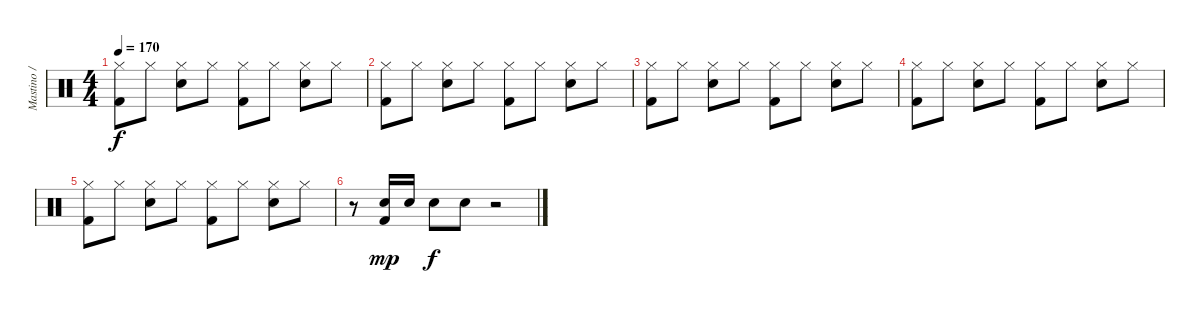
\track ("Mastino / Drums" "Mastino / ") {instrument percussion}
\staff {score}
\articulation defaults
\ts (4 4)
\tempo 170
\clef neutral
\ks c
("Hi-Hat (closed)" "Kick (hit) 2").8{dy f} "Hi-Hat (closed)".8 ("Hi-Hat (closed)" "Electric Snare (hit)").8 "Hi-Hat (closed)".8 ("Hi-Hat (closed)" "Kick (hit) 2").8 "Hi-Hat (closed)".8 ("Hi-Hat (closed)" "Electric Snare (hit)").8 "Hi-Hat (closed)".8 |
("Hi-Hat (closed)" "Kick (hit) 2").8 "Hi-Hat (closed)".8 ("Hi-Hat (closed)" "Electric Snare (hit)").8 "Hi-Hat (closed)".8 ("Hi-Hat (closed)" "Kick (hit) 2").8 "Hi-Hat (closed)".8 ("Hi-Hat (closed)" "Electric Snare (hit)").8 "Hi-Hat (closed)".8 |
("Hi-Hat (closed)" "Kick (hit) 2").8 "Hi-Hat (closed)".8 ("Hi-Hat (closed)" "Electric Snare (hit)").8 "Hi-Hat (closed)".8 ("Hi-Hat (closed)" "Kick (hit) 2").8 "Hi-Hat (closed)".8 ("Hi-Hat (closed)" "Electric Snare (hit)").8 "Hi-Hat (closed)".8 |
("Hi-Hat (closed)" "Kick (hit) 2").8 "Hi-Hat (closed)".8 ("Hi-Hat (closed)" "Electric Snare (hit)").8 "Hi-Hat (closed)".8 ("Hi-Hat (closed)" "Kick (hit) 2").8 "Hi-Hat (closed)".8 ("Hi-Hat (closed)" "Electric Snare (hit)").8 "Hi-Hat (closed)".8 |
("Hi-Hat (closed)" "Kick (hit) 2").8 "Hi-Hat (closed)".8 ("Hi-Hat (closed)" "Electric Snare (hit)").8 "Hi-Hat (closed)".8 ("Hi-Hat (closed)" "Kick (hit) 2").8 "Hi-Hat (closed)".8 ("Hi-Hat (closed)" "Electric Snare (hit)").8 "Hi-Hat (closed)".8 |
r.8 ("Electric Snare (hit)" "Kick (hit) 2").16{dy mp} "Electric Snare (hit)".16 "Electric Snare (hit)".8{dy f} "Electric Snare (hit)".8 r.2
